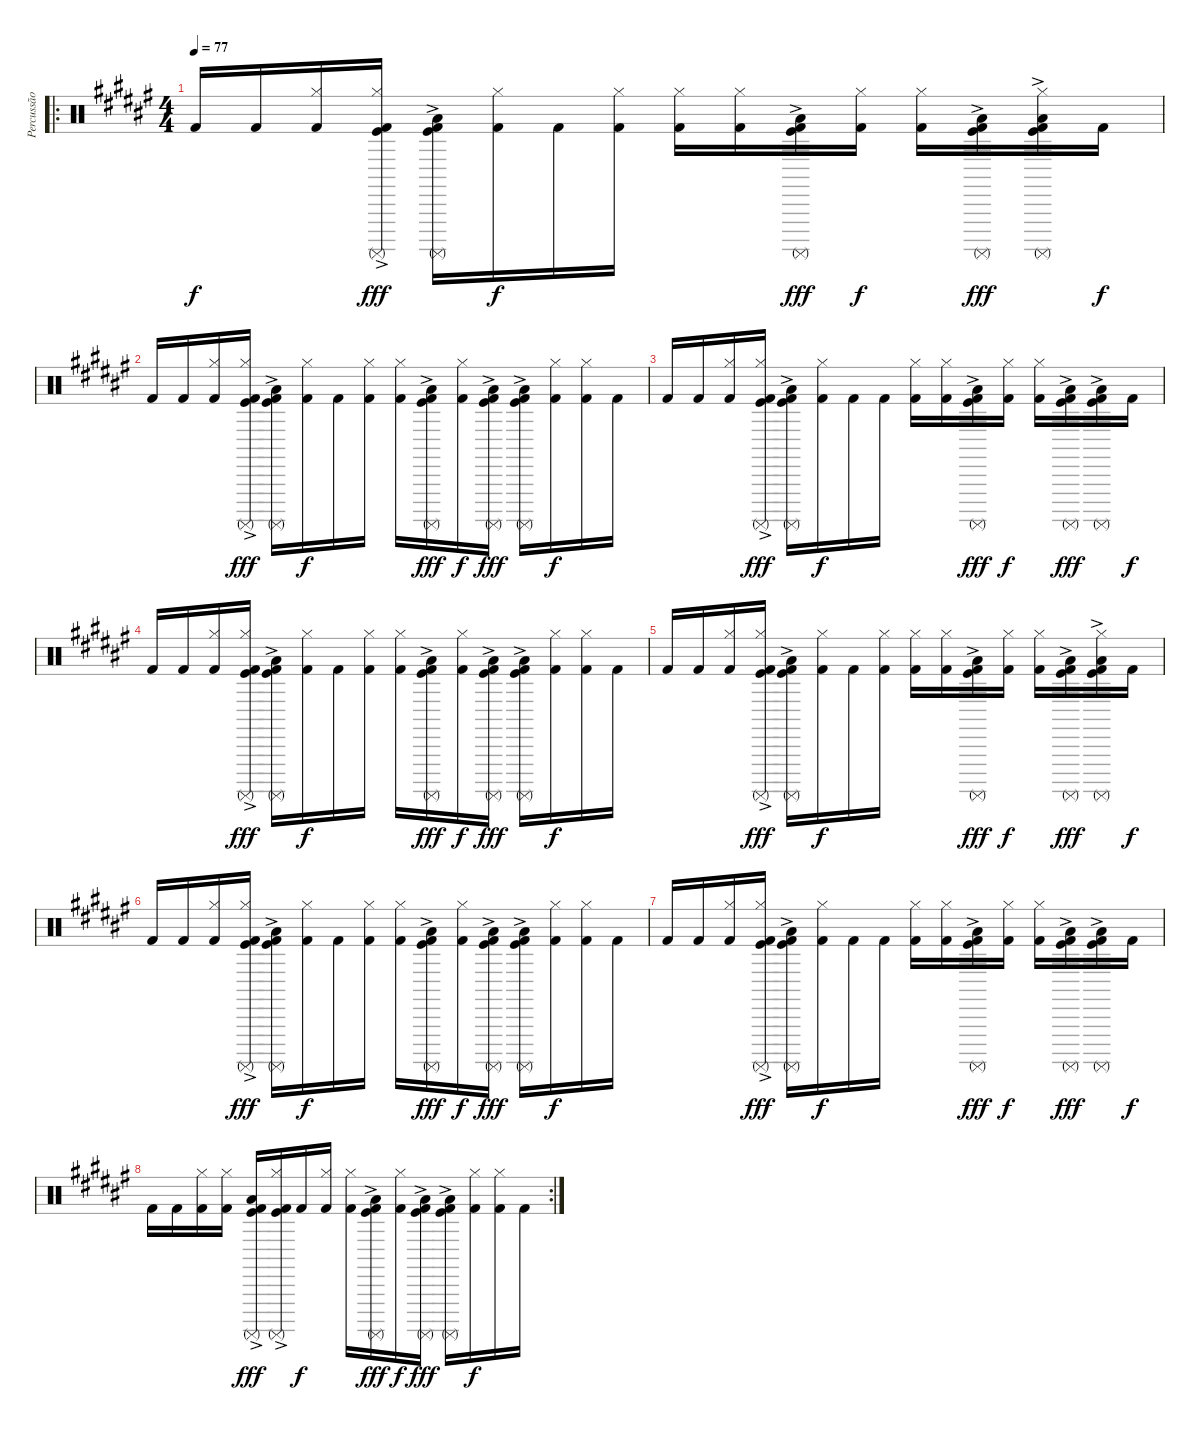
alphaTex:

\track ("Percussão" "Percussão") {instrument percussion}
\staff {score}
\articulation defaults
\ro
\ts (4 4)
\tempo 77
\clef neutral
\ks d#minor "Kick (hit) 2".16{dy f} "Kick (hit) 2".16
("Kick (hit) 2" "Hi-Hat (closed)").16 ("Kick (hit)"{ac} "Kick (hit) 2" "Hi-Hat (closed)" "Surdo (mute)").16{dy fff} ("Kick (hit)"{ac} "Kick (hit) 2" "Low Floor Tom (hit)" "Surdo (mute)").16 ("Kick (hit) 2" "Hi-Hat (closed)").16{dy f} "Kick (hit) 2".16 ("Kick (hit) 2" "Hi-Hat (closed)").16 ("Kick (hit) 2" "Hi-Hat (closed)").16 ("Kick (hit) 2" "Hi-Hat (closed)").16 ("Kick (hit)" "Kick (hit) 2"{ac} "Low Floor Tom (hit)" "Surdo (mute)").16{dy fff} ("Kick (hit) 2" "Hi-Hat (closed)").16{dy f} ("Kick (hit) 2" "Hi-Hat (closed)").16 ("Kick (hit)" "Kick (hit) 2"{ac} "Low Floor Tom (hit)" "Surdo (mute)").16{dy fff} ("Kick (hit)" "Kick (hit) 2"{ac} "Hi-Hat (closed)" "Low Floor Tom (hit)" "Surdo (mute)").16 "Kick (hit) 2".16{dy f} |
"Kick (hit) 2".16 "Kick (hit) 2".16 ("Kick (hit) 2" "Hi-Hat (closed)").16 ("Kick (hit)"{ac} "Kick (hit) 2" "Hi-Hat (closed)" "Surdo (mute)").16{dy fff} ("Kick (hit)"{ac} "Kick (hit) 2" "Low Floor Tom (hit)" "Surdo (mute)").16 ("Kick (hit) 2" "Hi-Hat (closed)").16{dy f} "Kick (hit) 2".16 ("Kick (hit) 2" "Hi-Hat (closed)").16 ("Kick (hit) 2" "Hi-Hat (closed)").16 ("Kick (hit)" "Kick (hit) 2"{ac} "Low Floor Tom (hit)" "Surdo (mute)").16{dy fff} ("Kick (hit) 2" "Hi-Hat (closed)").16{dy f} ("Kick (hit)" "Kick (hit) 2"{ac} "Low Floor Tom (hit)" "Surdo (mute)").16{dy fff} ("Kick (hit)" "Kick (hit) 2"{ac} "Low Floor Tom (hit)" "Surdo (mute)").16 ("Kick (hit) 2" "Hi-Hat (closed)").16{dy f} ("Kick (hit) 2" "Hi-Hat (closed)").16 "Kick (hit) 2".16 |
"Kick (hit) 2".16 "Kick (hit) 2".16 ("Kick (hit) 2" "Hi-Hat (closed)").16 ("Kick (hit)"{ac} "Kick (hit) 2" "Hi-Hat (closed)" "Surdo (mute)").16{dy fff} ("Kick (hit)"{ac} "Kick (hit) 2" "Low Floor Tom (hit)" "Surdo (mute)").16 ("Kick (hit) 2" "Hi-Hat (closed)").16{dy f} "Kick (hit) 2".16 "Kick (hit) 2".16 ("Kick (hit) 2" "Hi-Hat (closed)").16 ("Kick (hit) 2" "Hi-Hat (closed)").16 ("Kick (hit)" "Kick (hit) 2"{ac} "Low Floor Tom (hit)" "Surdo (mute)").16{dy fff} ("Kick (hit) 2" "Hi-Hat (closed)").16{dy f} ("Kick (hit) 2" "Hi-Hat (closed)").16 ("Kick (hit)" "Kick (hit) 2"{ac} "Low Floor Tom (hit)" "Surdo (mute)").16{dy fff} ("Kick (hit)" "Kick (hit) 2"{ac} "Low Floor Tom (hit)" "Surdo (mute)").16 "Kick (hit) 2".16{dy f} |
"Kick (hit) 2".16 "Kick (hit) 2".16 ("Kick (hit) 2" "Hi-Hat (closed)").16 ("Kick (hit)"{ac} "Kick (hit) 2" "Hi-Hat (closed)" "Surdo (mute)").16{dy fff} ("Kick (hit)"{ac} "Kick (hit) 2" "Low Floor Tom (hit)" "Surdo (mute)").16 ("Kick (hit) 2" "Hi-Hat (closed)").16{dy f} "Kick (hit) 2".16 ("Kick (hit) 2" "Hi-Hat (closed)").16 ("Kick (hit) 2" "Hi-Hat (closed)").16 ("Kick (hit)" "Kick (hit) 2"{ac} "Low Floor Tom (hit)" "Surdo (mute)").16{dy fff} ("Kick (hit) 2" "Hi-Hat (closed)").16{dy f} ("Kick (hit)" "Kick (hit) 2"{ac} "Low Floor Tom (hit)" "Surdo (mute)").16{dy fff} ("Kick (hit)" "Kick (hit) 2"{ac} "Low Floor Tom (hit)" "Surdo (mute)").16 ("Kick (hit) 2" "Hi-Hat (closed)").16{dy f} ("Kick (hit) 2" "Hi-Hat (closed)").16 "Kick (hit) 2".16 |
"Kick (hit) 2".16 "Kick (hit) 2".16 ("Kick (hit) 2" "Hi-Hat (closed)").16 ("Kick (hit)"{ac} "Kick (hit) 2" "Hi-Hat (closed)" "Surdo (mute)").16{dy fff} ("Kick (hit)"{ac} "Kick (hit) 2" "Low Floor Tom (hit)" "Surdo (mute)").16 ("Kick (hit) 2" "Hi-Hat (closed)").16{dy f} "Kick (hit) 2".16 ("Kick (hit) 2" "Hi-Hat (closed)").16 ("Kick (hit) 2" "Hi-Hat (closed)").16 ("Kick (hit) 2" "Hi-Hat (closed)").16 ("Kick (hit)" "Kick (hit) 2"{ac} "Low Floor Tom (hit)" "Surdo (mute)").16{dy fff} ("Kick (hit) 2" "Hi-Hat (closed)").16{dy f} ("Kick (hit) 2" "Hi-Hat (closed)").16 ("Kick (hit)" "Kick (hit) 2"{ac} "Low Floor Tom (hit)" "Surdo (mute)").16{dy fff} ("Kick (hit)" "Kick (hit) 2"{ac} "Hi-Hat (closed)" "Low Floor Tom (hit)" "Surdo (mute)").16 "Kick (hit) 2".16{dy f} |
"Kick (hit) 2".16 "Kick (hit) 2".16 ("Kick (hit) 2" "Hi-Hat (closed)").16 ("Kick (hit)"{ac} "Kick (hit) 2" "Hi-Hat (closed)" "Surdo (mute)").16{dy fff} ("Kick (hit)"{ac} "Kick (hit) 2" "Low Floor Tom (hit)" "Surdo (mute)").16 ("Kick (hit) 2" "Hi-Hat (closed)").16{dy f} "Kick (hit) 2".16 ("Kick (hit) 2" "Hi-Hat (closed)").16 ("Kick (hit) 2" "Hi-Hat (closed)").16 ("Kick (hit)" "Kick (hit) 2"{ac} "Low Floor Tom (hit)" "Surdo (mute)").16{dy fff} ("Kick (hit) 2" "Hi-Hat (closed)").16{dy f} ("Kick (hit)" "Kick (hit) 2"{ac} "Low Floor Tom (hit)" "Surdo (mute)").16{dy fff} ("Kick (hit)" "Kick (hit) 2"{ac} "Low Floor Tom (hit)" "Surdo (mute)").16 ("Kick (hit) 2" "Hi-Hat (closed)").16{dy f} ("Kick (hit) 2" "Hi-Hat (closed)").16 "Kick (hit) 2".16 |
"Kick (hit) 2".16 "Kick (hit) 2".16 ("Kick (hit) 2" "Hi-Hat (closed)").16 ("Kick (hit)"{ac} "Kick (hit) 2" "Hi-Hat (closed)" "Surdo (mute)").16{dy fff} ("Kick (hit)"{ac} "Kick (hit) 2" "Low Floor Tom (hit)" "Surdo (mute)").16 ("Kick (hit) 2" "Hi-Hat (closed)").16{dy f} "Kick (hit) 2".16 "Kick (hit) 2".16 ("Kick (hit) 2" "Hi-Hat (closed)").16 ("Kick (hit) 2" "Hi-Hat (closed)").16 ("Kick (hit)" "Kick (hit) 2"{ac} "Low Floor Tom (hit)" "Surdo (mute)").16{dy fff} ("Kick (hit) 2" "Hi-Hat (closed)").16{dy f} ("Kick (hit) 2" "Hi-Hat (closed)").16 ("Kick (hit)" "Kick (hit) 2"{ac} "Low Floor Tom (hit)" "Surdo (mute)").16{dy fff} ("Kick (hit)" "Kick (hit) 2"{ac} "Low Floor Tom (hit)" "Surdo (mute)").16 "Kick (hit) 2".16{dy f} |
\rc 2 "Kick (hit) 2".16 "Kick (hit) 2".16
("Kick (hit) 2" "Hi-Hat (closed)").16 ("Kick (hit) 2" "Hi-Hat (closed)").16 ("Kick (hit)"{ac} "Kick (hit) 2" "Low Floor Tom (hit)" "Surdo (mute)").16{dy fff} ("Kick (hit)"{ac} "Kick (hit) 2" "Hi-Hat (closed)" "Surdo (mute)").16 "Kick (hit) 2".16{dy f} ("Kick (hit) 2" "Hi-Hat (closed)").16 ("Kick (hit) 2" "Hi-Hat (closed)").16 ("Kick (hit)" "Kick (hit) 2"{ac} "Low Floor Tom (hit)" "Surdo (mute)").16{dy fff} ("Kick (hit) 2" "Hi-Hat (closed)").16{dy f} ("Kick (hit)" "Kick (hit) 2"{ac} "Low Floor Tom (hit)" "Surdo (mute)").16{dy fff} ("Kick (hit)" "Kick (hit) 2"{ac} "Low Floor Tom (hit)" "Surdo (mute)").16 ("Kick (hit) 2" "Hi-Hat (closed)").16{dy f} ("Kick (hit) 2" "Hi-Hat (closed)").16 "Kick (hit) 2".16
